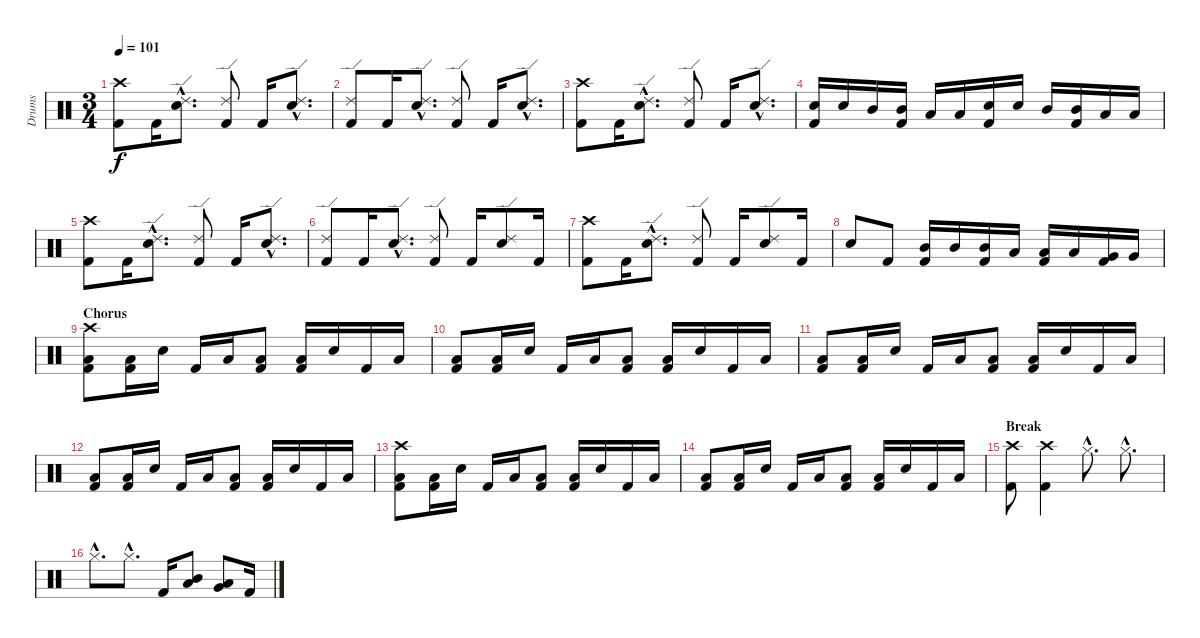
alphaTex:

\track ("Drums" "Drums") {instrument percussion}
\staff {score}
\articulation defaults
\ts (3 4)
\tempo 101
\clef neutral
\ks c
("Crash high (hit)" "Kick (hit) 2").8{dy f} "Kick (hit) 2".16 ("Electric Snare (hit)"{hac} "Ride (edge) 2"{hac}).8{d} ("Ride (edge) 2" "Kick (hit) 2").8 "Kick (hit) 2".16 ("Electric Snare (hit)"{hac} "Ride (edge) 2"{hac}).8{d} |
("Ride (edge) 2" "Kick (hit) 2").8 "Kick (hit) 2".16 ("Electric Snare (hit)"{hac} "Ride (edge) 2"{hac}).8{d} ("Ride (edge) 2" "Kick (hit) 2").8 "Kick (hit) 2".16 ("Electric Snare (hit)"{hac} "Ride (edge) 2"{hac}).8{d} |
("Crash high (hit)" "Kick (hit) 2").8 "Kick (hit) 2".16 ("Electric Snare (hit)"{hac} "Ride (edge) 2"{hac}).8{d} ("Ride (edge) 2" "Kick (hit) 2").8 "Kick (hit) 2".16 ("Electric Snare (hit)"{hac} "Ride (edge) 2"{hac}).8{d} |
("Electric Snare (hit)" "Kick (hit) 2").16 "Electric Snare (hit)".16 "Mid Tom (hit)".16 ("Mid Tom (hit)" "Kick (hit) 2").16 "Low Tom (hit)".16 "Low Tom (hit)".16 ("Electric Snare (hit)" "Kick (hit) 2").16 "Electric Snare (hit)".16 "Mid Tom (hit)".16 ("Mid Tom (hit)" "Kick (hit) 2").16 "Low Tom (hit)".16 "Low Tom (hit)".16 |
("Crash high (hit)" "Kick (hit) 2").8 "Kick (hit) 2".16 ("Electric Snare (hit)"{hac} "Ride (edge) 2"{hac}).8{d} ("Ride (edge) 2" "Kick (hit) 2").8 "Kick (hit) 2".16 ("Electric Snare (hit)"{hac} "Ride (edge) 2"{hac}).8{d} |
("Ride (edge) 2" "Kick (hit) 2").8 "Kick (hit) 2".16 ("Electric Snare (hit)"{hac} "Ride (edge) 2"{hac}).8{d} ("Ride (edge) 2" "Kick (hit) 2").8 "Kick (hit) 2".16 ("Electric Snare (hit)" "Ride (edge) 2").8 "Kick (hit) 2".16 |
("Crash high (hit)" "Kick (hit) 2").8 "Kick (hit) 2".16 ("Electric Snare (hit)"{hac} "Ride (edge) 2"{hac}).8{d} ("Ride (edge) 2" "Kick (hit) 2").8 "Kick (hit) 2".16 ("Electric Snare (hit)" "Ride (edge) 2").8 "Kick (hit) 2".16 |
"Electric Snare (hit)".8 "Kick (hit) 2".8 ("Mid Tom (hit)" "Kick (hit) 2").16 "Mid Tom (hit)".16 ("Mid Tom (hit)" "Kick (hit) 2").16 "Low Tom (hit)".16 ("Low Tom (hit)" "Kick (hit) 2").16 "Low Tom (hit)".16 ("Very Low Tom (hit)" "Kick (hit) 2").16 "Very Low Tom (hit)".16 |
\section ("" "Chorus")
("Crash high (hit)" "Low Tom (hit)" "Kick (hit) 2").8 ("Low Tom (hit)" "Kick (hit) 2").16 "Electric Snare (hit)".16 "Kick (hit) 2".16 "Low Tom (hit)".16 ("Low Tom (hit)" "Kick (hit) 2").8 ("Low Tom (hit)" "Kick (hit) 2").16 "Electric Snare (hit)".16 "Kick (hit) 2".16 "Low Tom (hit)".16 |
("Low Tom (hit)" "Kick (hit) 2").8 ("Low Tom (hit)" "Kick (hit) 2").16 "Electric Snare (hit)".16 "Kick (hit) 2".16 "Low Tom (hit)".16 ("Low Tom (hit)" "Kick (hit) 2").8 ("Low Tom (hit)" "Kick (hit) 2").16 "Electric Snare (hit)".16 "Kick (hit) 2".16 "Low Tom (hit)".16 |
("Low Tom (hit)" "Kick (hit) 2").8 ("Low Tom (hit)" "Kick (hit) 2").16 "Electric Snare (hit)".16 "Kick (hit) 2".16 "Low Tom (hit)".16 ("Low Tom (hit)" "Kick (hit) 2").8 ("Low Tom (hit)" "Kick (hit) 2").16 "Electric Snare (hit)".16 "Kick (hit) 2".16 "Low Tom (hit)".16 |
("Low Tom (hit)" "Kick (hit) 2").8 ("Low Tom (hit)" "Kick (hit) 2").16 "Electric Snare (hit)".16 "Kick (hit) 2".16 "Low Tom (hit)".16 ("Low Tom (hit)" "Kick (hit) 2").8 ("Low Tom (hit)" "Kick (hit) 2").16 "Electric Snare (hit)".16 "Kick (hit) 2".16 "Low Tom (hit)".16 |
("Crash high (hit)" "Low Tom (hit)" "Kick (hit) 2").8 ("Low Tom (hit)" "Kick (hit) 2").16 "Electric Snare (hit)".16 "Kick (hit) 2".16 "Low Tom (hit)".16 ("Low Tom (hit)" "Kick (hit) 2").8 ("Low Tom (hit)" "Kick (hit) 2").16 "Electric Snare (hit)".16 "Kick (hit) 2".16 "Low Tom (hit)".16 |
("Low Tom (hit)" "Kick (hit) 2").8 ("Low Tom (hit)" "Kick (hit) 2").16 "Electric Snare (hit)".16 "Kick (hit) 2".16 "Low Tom (hit)".16 ("Low Tom (hit)" "Kick (hit) 2").8 ("Low Tom (hit)" "Kick (hit) 2").16 "Electric Snare (hit)".16 "Kick (hit) 2".16 "Low Tom (hit)".16 |
\section ("" "Break")
("Crash high (hit)" "Kick (hit) 2").8 ("Crash high (hit)" "Kick (hit) 2").4 "Hi-Hat (closed)"{hac}.8{d} "Hi-Hat (closed)"{hac}.8{d} |
"Hi-Hat (closed)"{hac}.8{d} "Hi-Hat (closed)"{hac}.8{d} "Kick (hit) 2".16 ("Low Tom (hit)" "Mid Tom (hit)").8 ("Low Tom (hit)" "Very Low Tom (hit)").8 "Kick (hit) 2".16
